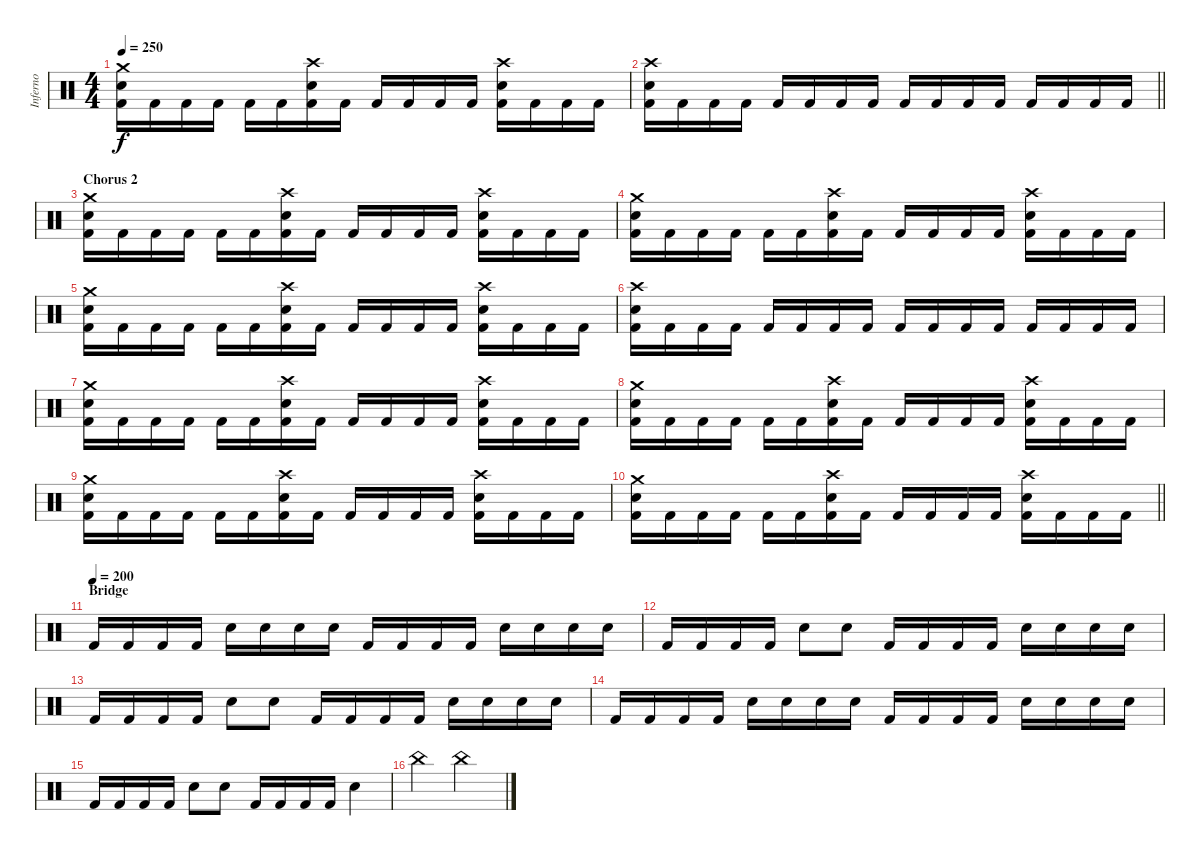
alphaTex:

\track ("Inferno" "Inferno") {instrument percussion}
\staff {score}
\articulation defaults
\ts (4 4)
\tempo 250
\clef neutral
\ks c
("Crash medium (hit)" "Electric Snare (hit)" "Kick (hit) 2").16{dy f} "Kick (hit) 2".16 "Kick (hit) 2".16 "Kick (hit) 2".16 "Kick (hit) 2".16 "Kick (hit) 2".16 ("Crash high (hit)" "Electric Snare (hit)" "Kick (hit) 2").16 "Kick (hit) 2".16 "Kick (hit) 2".16 "Kick (hit) 2".16 "Kick (hit) 2".16 "Kick (hit) 2".16 ("Crash high (hit)" "Electric Snare (hit)" "Kick (hit) 2").16 "Kick (hit) 2".16 "Kick (hit) 2".16 "Kick (hit) 2".16 |
\barLineRight lightlight
("Crash high (hit)" "Electric Snare (hit)" "Kick (hit) 2").16 "Kick (hit) 2".16 "Kick (hit) 2".16 "Kick (hit) 2".16 "Kick (hit) 2".16 "Kick (hit) 2".16 "Kick (hit) 2".16 "Kick (hit) 2".16 "Kick (hit) 2".16 "Kick (hit) 2".16 "Kick (hit) 2".16 "Kick (hit) 2".16 "Kick (hit) 2".16 "Kick (hit) 2".16 "Kick (hit) 2".16 "Kick (hit) 2".16 |
\section ("" "Chorus 2")
("Crash medium (hit)" "Electric Snare (hit)" "Kick (hit) 2").16 "Kick (hit) 2".16 "Kick (hit) 2".16 "Kick (hit) 2".16 "Kick (hit) 2".16 "Kick (hit) 2".16 ("Crash high (hit)" "Electric Snare (hit)" "Kick (hit) 2").16 "Kick (hit) 2".16 "Kick (hit) 2".16 "Kick (hit) 2".16 "Kick (hit) 2".16 "Kick (hit) 2".16 ("Crash high (hit)" "Electric Snare (hit)" "Kick (hit) 2").16 "Kick (hit) 2".16 "Kick (hit) 2".16 "Kick (hit) 2".16 |
("Crash medium (hit)" "Electric Snare (hit)" "Kick (hit) 2").16 "Kick (hit) 2".16 "Kick (hit) 2".16 "Kick (hit) 2".16 "Kick (hit) 2".16 "Kick (hit) 2".16 ("Crash high (hit)" "Electric Snare (hit)" "Kick (hit) 2").16 "Kick (hit) 2".16 "Kick (hit) 2".16 "Kick (hit) 2".16 "Kick (hit) 2".16 "Kick (hit) 2".16 ("Crash high (hit)" "Electric Snare (hit)" "Kick (hit) 2").16 "Kick (hit) 2".16 "Kick (hit) 2".16 "Kick (hit) 2".16 |
("Crash medium (hit)" "Electric Snare (hit)" "Kick (hit) 2").16 "Kick (hit) 2".16 "Kick (hit) 2".16 "Kick (hit) 2".16 "Kick (hit) 2".16 "Kick (hit) 2".16 ("Crash high (hit)" "Electric Snare (hit)" "Kick (hit) 2").16 "Kick (hit) 2".16 "Kick (hit) 2".16 "Kick (hit) 2".16 "Kick (hit) 2".16 "Kick (hit) 2".16 ("Crash high (hit)" "Electric Snare (hit)" "Kick (hit) 2").16 "Kick (hit) 2".16 "Kick (hit) 2".16 "Kick (hit) 2".16 |
("Crash high (hit)" "Electric Snare (hit)" "Kick (hit) 2").16 "Kick (hit) 2".16 "Kick (hit) 2".16 "Kick (hit) 2".16 "Kick (hit) 2".16 "Kick (hit) 2".16 "Kick (hit) 2".16 "Kick (hit) 2".16 "Kick (hit) 2".16 "Kick (hit) 2".16 "Kick (hit) 2".16 "Kick (hit) 2".16 "Kick (hit) 2".16 "Kick (hit) 2".16 "Kick (hit) 2".16 "Kick (hit) 2".16 |
("Crash medium (hit)" "Electric Snare (hit)" "Kick (hit) 2").16 "Kick (hit) 2".16 "Kick (hit) 2".16 "Kick (hit) 2".16 "Kick (hit) 2".16 "Kick (hit) 2".16 ("Crash high (hit)" "Electric Snare (hit)" "Kick (hit) 2").16 "Kick (hit) 2".16 "Kick (hit) 2".16 "Kick (hit) 2".16 "Kick (hit) 2".16 "Kick (hit) 2".16 ("Crash high (hit)" "Electric Snare (hit)" "Kick (hit) 2").16 "Kick (hit) 2".16 "Kick (hit) 2".16 "Kick (hit) 2".16 |
("Crash medium (hit)" "Electric Snare (hit)" "Kick (hit) 2").16 "Kick (hit) 2".16 "Kick (hit) 2".16 "Kick (hit) 2".16 "Kick (hit) 2".16 "Kick (hit) 2".16 ("Crash high (hit)" "Electric Snare (hit)" "Kick (hit) 2").16 "Kick (hit) 2".16 "Kick (hit) 2".16 "Kick (hit) 2".16 "Kick (hit) 2".16 "Kick (hit) 2".16 ("Crash high (hit)" "Electric Snare (hit)" "Kick (hit) 2").16 "Kick (hit) 2".16 "Kick (hit) 2".16 "Kick (hit) 2".16 |
("Crash medium (hit)" "Electric Snare (hit)" "Kick (hit) 2").16 "Kick (hit) 2".16 "Kick (hit) 2".16 "Kick (hit) 2".16 "Kick (hit) 2".16 "Kick (hit) 2".16 ("Crash high (hit)" "Electric Snare (hit)" "Kick (hit) 2").16 "Kick (hit) 2".16 "Kick (hit) 2".16 "Kick (hit) 2".16 "Kick (hit) 2".16 "Kick (hit) 2".16 ("Crash high (hit)" "Electric Snare (hit)" "Kick (hit) 2").16 "Kick (hit) 2".16 "Kick (hit) 2".16 "Kick (hit) 2".16 |
\barLineRight lightlight
("Crash medium (hit)" "Electric Snare (hit)" "Kick (hit) 2").16 "Kick (hit) 2".16 "Kick (hit) 2".16 "Kick (hit) 2".16 "Kick (hit) 2".16 "Kick (hit) 2".16 ("Crash high (hit)" "Electric Snare (hit)" "Kick (hit) 2").16 "Kick (hit) 2".16 "Kick (hit) 2".16 "Kick (hit) 2".16 "Kick (hit) 2".16 "Kick (hit) 2".16 ("Crash high (hit)" "Electric Snare (hit)" "Kick (hit) 2").16 "Kick (hit) 2".16 "Kick (hit) 2".16 "Kick (hit) 2".16 |
\section ("" "Bridge")
\tempo (200)
"Kick (hit) 2".16 "Kick (hit) 2".16 "Kick (hit) 2".16 "Kick (hit) 2".16 "Electric Snare (hit)".16 "Electric Snare (hit)".16 "Electric Snare (hit)".16 "Electric Snare (hit)".16 "Kick (hit) 2".16 "Kick (hit) 2".16 "Kick (hit) 2".16 "Kick (hit) 2".16 "Electric Snare (hit)".16 "Electric Snare (hit)".16 "Electric Snare (hit)".16 "Electric Snare (hit)".16 |
"Kick (hit) 2".16 "Kick (hit) 2".16 "Kick (hit) 2".16 "Kick (hit) 2".16 "Electric Snare (hit)".8 "Electric Snare (hit)".8 "Kick (hit) 2".16 "Kick (hit) 2".16 "Kick (hit) 2".16 "Kick (hit) 2".16 "Electric Snare (hit)".16 "Electric Snare (hit)".16 "Electric Snare (hit)".16 "Electric Snare (hit)".16 |
"Kick (hit) 2".16 "Kick (hit) 2".16 "Kick (hit) 2".16 "Kick (hit) 2".16 "Electric Snare (hit)".8 "Electric Snare (hit)".8 "Kick (hit) 2".16 "Kick (hit) 2".16 "Kick (hit) 2".16 "Kick (hit) 2".16 "Electric Snare (hit)".16 "Electric Snare (hit)".16 "Electric Snare (hit)".16 "Electric Snare (hit)".16 |
"Kick (hit) 2".16 "Kick (hit) 2".16 "Kick (hit) 2".16 "Kick (hit) 2".16 "Electric Snare (hit)".16 "Electric Snare (hit)".16 "Electric Snare (hit)".16 "Electric Snare (hit)".16 "Kick (hit) 2".16 "Kick (hit) 2".16 "Kick (hit) 2".16 "Kick (hit) 2".16 "Electric Snare (hit)".16 "Electric Snare (hit)".16 "Electric Snare (hit)".16 "Electric Snare (hit)".16 |
"Kick (hit) 2".16 "Kick (hit) 2".16 "Kick (hit) 2".16 "Kick (hit) 2".16 "Electric Snare (hit)".8 "Electric Snare (hit)".8 "Kick (hit) 2".16 "Kick (hit) 2".16 "Kick (hit) 2".16 "Kick (hit) 2".16 "Electric Snare (hit)".4 |
"China (hit)".2 "China (hit)".2
